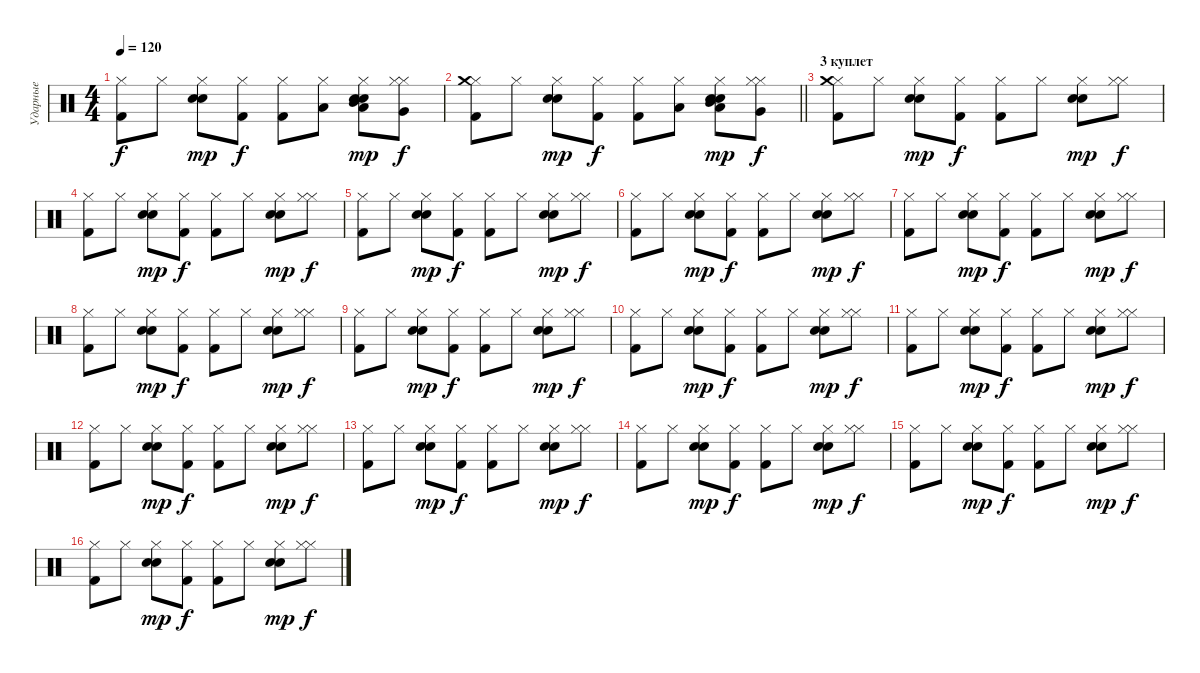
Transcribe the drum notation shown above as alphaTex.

\track ("Ударные" "Ударные") {instrument percussion}
\staff {score}
\articulation defaults
\ts (4 4)
\tempo 120
\clef neutral
\ks c
("Kick (hit) 2" "Hi-Hat (closed)").8{dy f} "Hi-Hat (closed)".8 ("Hand Clap (hit)" "Hi-Hat (closed)" "Electric Snare (hit)").8{dy mp} ("Kick (hit) 2" "Hi-Hat (closed)").8{dy f} ("Kick (hit) 2" "Hi-Hat (closed)").8 ("Hi-Hat (closed)" "Low Tom (hit)").8 ("Hand Clap (hit)" "Hi-Hat (closed)" "Electric Snare (hit)" "Mid Tom (hit)" "Low Floor Tom (hit)").8{dy mp} ("Hi-Hat (closed)" "Hi-Hat (closed)" "Very Low Tom (hit)").8{dy f} |
\barLineRight lightlight
("Kick (hit) 2" "Hi-Hat (closed)" "Crash medium (hit)").8 "Hi-Hat (closed)".8 ("Hand Clap (hit)" "Hi-Hat (closed)" "Electric Snare (hit)").8{dy mp} ("Kick (hit) 2" "Hi-Hat (closed)").8{dy f} ("Kick (hit) 2" "Hi-Hat (closed)").8 ("Hi-Hat (closed)" "Low Tom (hit)").8 ("Hand Clap (hit)" "Hi-Hat (closed)" "Electric Snare (hit)" "Mid Tom (hit)" "Low Floor Tom (hit)").8{dy mp} ("Hi-Hat (closed)" "Hi-Hat (closed)" "Very Low Tom (hit)").8{dy f} |
\section ("" "3 куплет")
("Kick (hit) 2" "Hi-Hat (closed)" "Crash medium (hit)").8 "Hi-Hat (closed)".8 ("Hand Clap (hit)" "Hi-Hat (closed)" "Electric Snare (hit)").8{dy mp} ("Kick (hit) 2" "Hi-Hat (closed)").8{dy f} ("Kick (hit) 2" "Hi-Hat (closed)").8 "Hi-Hat (closed)".8 ("Hand Clap (hit)" "Hi-Hat (closed)" "Electric Snare (hit)").8{dy mp} ("Hi-Hat (closed)" "Hi-Hat (closed)").8{dy f} |
("Kick (hit) 2" "Hi-Hat (closed)").8 "Hi-Hat (closed)".8 ("Hand Clap (hit)" "Hi-Hat (closed)" "Electric Snare (hit)").8{dy mp} ("Kick (hit) 2" "Hi-Hat (closed)").8{dy f} ("Kick (hit) 2" "Hi-Hat (closed)").8 "Hi-Hat (closed)".8 ("Hand Clap (hit)" "Hi-Hat (closed)" "Electric Snare (hit)").8{dy mp} ("Hi-Hat (closed)" "Hi-Hat (closed)").8{dy f} |
("Kick (hit) 2" "Hi-Hat (closed)").8 "Hi-Hat (closed)".8 ("Hand Clap (hit)" "Hi-Hat (closed)" "Electric Snare (hit)").8{dy mp} ("Kick (hit) 2" "Hi-Hat (closed)").8{dy f} ("Kick (hit) 2" "Hi-Hat (closed)").8 "Hi-Hat (closed)".8 ("Hand Clap (hit)" "Hi-Hat (closed)" "Electric Snare (hit)").8{dy mp} ("Hi-Hat (closed)" "Hi-Hat (closed)").8{dy f} |
("Kick (hit) 2" "Hi-Hat (closed)").8 "Hi-Hat (closed)".8 ("Hand Clap (hit)" "Hi-Hat (closed)" "Electric Snare (hit)").8{dy mp} ("Kick (hit) 2" "Hi-Hat (closed)").8{dy f} ("Kick (hit) 2" "Hi-Hat (closed)").8 "Hi-Hat (closed)".8 ("Hand Clap (hit)" "Hi-Hat (closed)" "Electric Snare (hit)").8{dy mp} ("Hi-Hat (closed)" "Hi-Hat (closed)").8{dy f} |
("Kick (hit) 2" "Hi-Hat (closed)").8 "Hi-Hat (closed)".8 ("Hand Clap (hit)" "Hi-Hat (closed)" "Electric Snare (hit)").8{dy mp} ("Kick (hit) 2" "Hi-Hat (closed)").8{dy f} ("Kick (hit) 2" "Hi-Hat (closed)").8 "Hi-Hat (closed)".8 ("Hand Clap (hit)" "Hi-Hat (closed)" "Electric Snare (hit)").8{dy mp} ("Hi-Hat (closed)" "Hi-Hat (closed)").8{dy f} |
("Kick (hit) 2" "Hi-Hat (closed)").8 "Hi-Hat (closed)".8 ("Hand Clap (hit)" "Hi-Hat (closed)" "Electric Snare (hit)").8{dy mp} ("Kick (hit) 2" "Hi-Hat (closed)").8{dy f} ("Kick (hit) 2" "Hi-Hat (closed)").8 "Hi-Hat (closed)".8 ("Hand Clap (hit)" "Hi-Hat (closed)" "Electric Snare (hit)").8{dy mp} ("Hi-Hat (closed)" "Hi-Hat (closed)").8{dy f} |
("Kick (hit) 2" "Hi-Hat (closed)").8 "Hi-Hat (closed)".8 ("Hand Clap (hit)" "Hi-Hat (closed)" "Electric Snare (hit)").8{dy mp} ("Kick (hit) 2" "Hi-Hat (closed)").8{dy f} ("Kick (hit) 2" "Hi-Hat (closed)").8 "Hi-Hat (closed)".8 ("Hand Clap (hit)" "Hi-Hat (closed)" "Electric Snare (hit)").8{dy mp} ("Hi-Hat (closed)" "Hi-Hat (closed)").8{dy f} |
("Kick (hit) 2" "Hi-Hat (closed)").8 "Hi-Hat (closed)".8 ("Hand Clap (hit)" "Hi-Hat (closed)" "Electric Snare (hit)").8{dy mp} ("Kick (hit) 2" "Hi-Hat (closed)").8{dy f} ("Kick (hit) 2" "Hi-Hat (closed)").8 "Hi-Hat (closed)".8 ("Hand Clap (hit)" "Hi-Hat (closed)" "Electric Snare (hit)").8{dy mp} ("Hi-Hat (closed)" "Hi-Hat (closed)").8{dy f} |
("Kick (hit) 2" "Hi-Hat (closed)").8 "Hi-Hat (closed)".8 ("Hand Clap (hit)" "Hi-Hat (closed)" "Electric Snare (hit)").8{dy mp} ("Kick (hit) 2" "Hi-Hat (closed)").8{dy f} ("Kick (hit) 2" "Hi-Hat (closed)").8 "Hi-Hat (closed)".8 ("Hand Clap (hit)" "Hi-Hat (closed)" "Electric Snare (hit)").8{dy mp} ("Hi-Hat (closed)" "Hi-Hat (closed)").8{dy f} |
("Kick (hit) 2" "Hi-Hat (closed)").8 "Hi-Hat (closed)".8 ("Hand Clap (hit)" "Hi-Hat (closed)" "Electric Snare (hit)").8{dy mp} ("Kick (hit) 2" "Hi-Hat (closed)").8{dy f} ("Kick (hit) 2" "Hi-Hat (closed)").8 "Hi-Hat (closed)".8 ("Hand Clap (hit)" "Hi-Hat (closed)" "Electric Snare (hit)").8{dy mp} ("Hi-Hat (closed)" "Hi-Hat (closed)").8{dy f} |
("Kick (hit) 2" "Hi-Hat (closed)").8 "Hi-Hat (closed)".8 ("Hand Clap (hit)" "Hi-Hat (closed)" "Electric Snare (hit)").8{dy mp} ("Kick (hit) 2" "Hi-Hat (closed)").8{dy f} ("Kick (hit) 2" "Hi-Hat (closed)").8 "Hi-Hat (closed)".8 ("Hand Clap (hit)" "Hi-Hat (closed)" "Electric Snare (hit)").8{dy mp} ("Hi-Hat (closed)" "Hi-Hat (closed)").8{dy f} |
("Kick (hit) 2" "Hi-Hat (closed)").8 "Hi-Hat (closed)".8 ("Hand Clap (hit)" "Hi-Hat (closed)" "Electric Snare (hit)").8{dy mp} ("Kick (hit) 2" "Hi-Hat (closed)").8{dy f} ("Kick (hit) 2" "Hi-Hat (closed)").8 "Hi-Hat (closed)".8 ("Hand Clap (hit)" "Hi-Hat (closed)" "Electric Snare (hit)").8{dy mp} ("Hi-Hat (closed)" "Hi-Hat (closed)").8{dy f} |
("Kick (hit) 2" "Hi-Hat (closed)").8 "Hi-Hat (closed)".8 ("Hand Clap (hit)" "Hi-Hat (closed)" "Electric Snare (hit)").8{dy mp} ("Kick (hit) 2" "Hi-Hat (closed)").8{dy f} ("Kick (hit) 2" "Hi-Hat (closed)").8 "Hi-Hat (closed)".8 ("Hand Clap (hit)" "Hi-Hat (closed)" "Electric Snare (hit)").8{dy mp} ("Hi-Hat (closed)" "Hi-Hat (closed)").8{dy f} |
("Kick (hit) 2" "Hi-Hat (closed)").8 "Hi-Hat (closed)".8 ("Hand Clap (hit)" "Hi-Hat (closed)" "Electric Snare (hit)").8{dy mp} ("Kick (hit) 2" "Hi-Hat (closed)").8{dy f} ("Kick (hit) 2" "Hi-Hat (closed)").8 "Hi-Hat (closed)".8 ("Hand Clap (hit)" "Hi-Hat (closed)" "Electric Snare (hit)").8{dy mp} ("Hi-Hat (closed)" "Hi-Hat (closed)").8{dy f}
